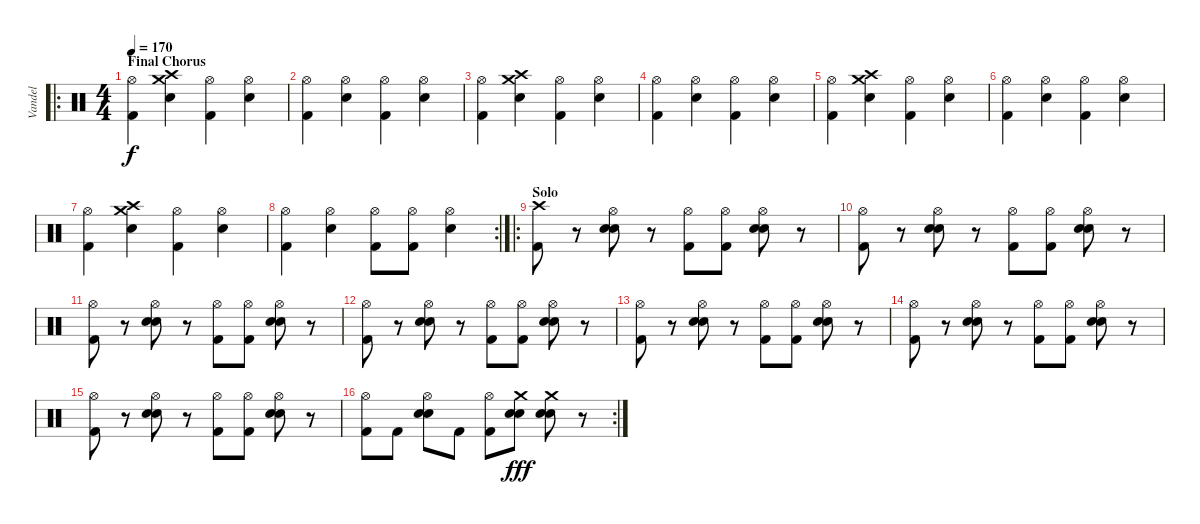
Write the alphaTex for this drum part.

\track ("Vandel" "Vandel") {instrument percussion}
\staff {score}
\articulation defaults
\ro
\ts (4 4)
\section ("" "Final Chorus")
\tempo 170
\clef neutral
\ks c
("Hi-Hat (open)" "Kick (hit) 2").4{dy f} ("Crash high (hit)" "Crash medium (hit)" "Electric Snare (hit)").4 ("Hi-Hat (open)" "Kick (hit) 2").4 ("Hi-Hat (open)" "Electric Snare (hit)").4 |
("Hi-Hat (open)" "Kick (hit) 2").4 ("Hi-Hat (open)" "Electric Snare (hit)").4 ("Hi-Hat (open)" "Kick (hit) 2").4 ("Hi-Hat (open)" "Electric Snare (hit)").4 |
("Hi-Hat (open)" "Kick (hit) 2").4 ("Crash medium (hit)" "Crash high (hit)" "Electric Snare (hit)").4 ("Hi-Hat (open)" "Kick (hit) 2").4 ("Hi-Hat (open)" "Electric Snare (hit)").4 |
("Hi-Hat (open)" "Kick (hit) 2").4 ("Hi-Hat (open)" "Electric Snare (hit)").4 ("Hi-Hat (open)" "Kick (hit) 2").4 ("Hi-Hat (open)" "Electric Snare (hit)").4 |
("Hi-Hat (open)" "Kick (hit) 2").4 ("Crash high (hit)" "Crash medium (hit)" "Electric Snare (hit)").4 ("Hi-Hat (open)" "Kick (hit) 2").4 ("Hi-Hat (open)" "Electric Snare (hit)").4 |
("Hi-Hat (open)" "Kick (hit) 2").4 ("Hi-Hat (open)" "Electric Snare (hit)").4 ("Hi-Hat (open)" "Kick (hit) 2").4 ("Hi-Hat (open)" "Electric Snare (hit)").4 |
("Hi-Hat (open)" "Kick (hit) 2").4 ("Crash medium (hit)" "Crash high (hit)" "Electric Snare (hit)").4 ("Hi-Hat (open)" "Kick (hit) 2").4 ("Hi-Hat (open)" "Electric Snare (hit)").4 |
\rc 2
("Hi-Hat (open)" "Kick (hit) 2").4 ("Hi-Hat (open)" "Electric Snare (hit)").4 ("Hi-Hat (open)" "Kick (hit) 2").8 ("Hi-Hat (open)" "Kick (hit) 2").8 ("Hi-Hat (open)" "Electric Snare (hit)").4 |
\ro
\section ("" "Solo")
("Crash high (hit)" "Kick (hit) 2").8 r.8 ("Hi-Hat (open)" "Electric Snare (hit)" "Electric Snare (hit)").8 r.8 ("Hi-Hat (open)" "Kick (hit) 2").8 ("Hi-Hat (open)" "Kick (hit) 2").8 ("Hi-Hat (open)" "Electric Snare (hit)" "Electric Snare (hit)").8 r.8 |
("Hi-Hat (open)" "Kick (hit) 2").8 r.8 ("Hi-Hat (open)" "Electric Snare (hit)" "Electric Snare (hit)").8 r.8 ("Hi-Hat (open)" "Kick (hit) 2").8 ("Hi-Hat (open)" "Kick (hit) 2").8 ("Hi-Hat (open)" "Electric Snare (hit)" "Electric Snare (hit)").8 r.8 |
("Hi-Hat (open)" "Kick (hit) 2").8 r.8 ("Hi-Hat (open)" "Electric Snare (hit)" "Electric Snare (hit)").8 r.8 ("Hi-Hat (open)" "Kick (hit) 2").8 ("Hi-Hat (open)" "Kick (hit) 2").8 ("Hi-Hat (open)" "Electric Snare (hit)" "Electric Snare (hit)").8 r.8 |
("Hi-Hat (open)" "Kick (hit) 2").8 r.8 ("Hi-Hat (open)" "Electric Snare (hit)" "Electric Snare (hit)").8 r.8 ("Hi-Hat (open)" "Kick (hit) 2").8 ("Hi-Hat (open)" "Kick (hit) 2").8 ("Hi-Hat (open)" "Electric Snare (hit)" "Electric Snare (hit)").8 r.8 |
("Hi-Hat (open)" "Kick (hit) 2").8 r.8 ("Hi-Hat (open)" "Electric Snare (hit)" "Electric Snare (hit)").8 r.8 ("Hi-Hat (open)" "Kick (hit) 2").8 ("Hi-Hat (open)" "Kick (hit) 2").8 ("Hi-Hat (open)" "Electric Snare (hit)" "Electric Snare (hit)").8 r.8 |
("Hi-Hat (open)" "Kick (hit) 2").8 r.8 ("Hi-Hat (open)" "Electric Snare (hit)" "Electric Snare (hit)").8 r.8 ("Hi-Hat (open)" "Kick (hit) 2").8 ("Hi-Hat (open)" "Kick (hit) 2").8 ("Hi-Hat (open)" "Electric Snare (hit)" "Electric Snare (hit)").8 r.8 |
("Hi-Hat (open)" "Kick (hit) 2").8 r.8 ("Hi-Hat (open)" "Electric Snare (hit)" "Electric Snare (hit)").8 r.8 ("Hi-Hat (open)" "Kick (hit) 2").8 ("Hi-Hat (open)" "Kick (hit) 2").8 ("Hi-Hat (open)" "Electric Snare (hit)" "Electric Snare (hit)").8 r.8 |
\rc 2
("Hi-Hat (open)" "Kick (hit) 2").8 "Kick (hit) 2".8 ("Hi-Hat (open)" "Electric Snare (hit)" "Electric Snare (hit)").8 "Kick (hit) 2".8 ("Hi-Hat (open)" "Kick (hit) 2").8 ("Crash medium (hit)" "Electric Snare (hit)" "Electric Snare (hit)").8{dy fff} ("Crash medium (hit)" "Electric Snare (hit)" "Electric Snare (hit)").8 r.8
